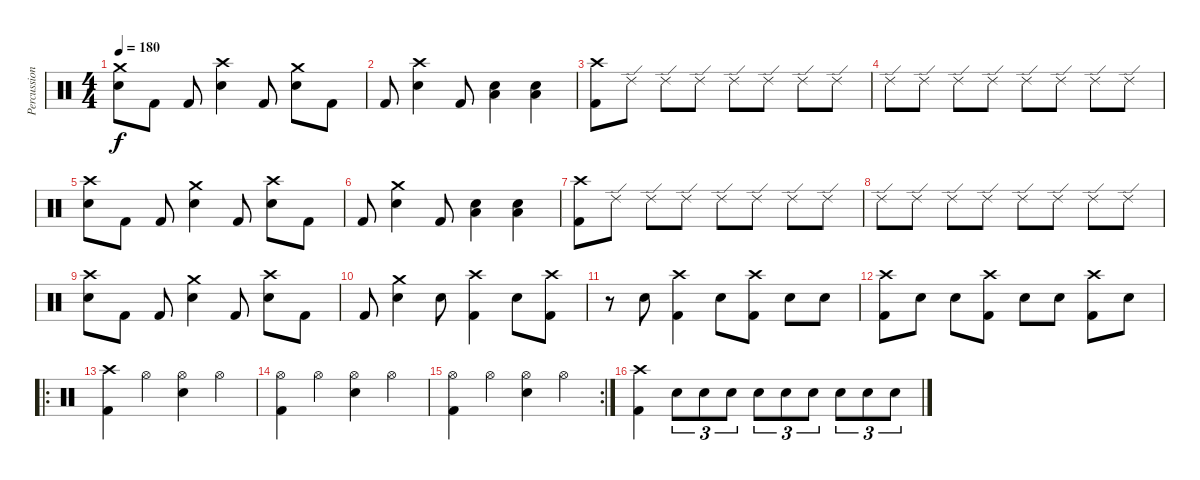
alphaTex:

\track ("Percussions" "Percussion") {instrument percussion}
\staff {score}
\articulation defaults
\ts (4 4)
\tempo 180
\clef neutral
\ks c
("Crash medium (hit)" "Snare (hit) 2").8{dy f} "Kick (hit) 2".8 "Kick (hit) 2".8 ("Crash high (hit)" "Snare (hit) 2").4 "Kick (hit) 2".8 ("Crash medium (hit)" "Snare (hit) 2").8 "Kick (hit) 2".8 |
"Kick (hit) 2".8 ("Crash high (hit)" "Snare (hit) 2").4 "Kick (hit) 2".8 ("Low Floor Tom (hit)" "Snare (hit) 2").4 ("Low Floor Tom (hit)" "Snare (hit) 2").4 |
("Crash high (hit)" "Kick (hit) 2").8 "Ride (edge) 2".8 "Ride (edge) 2".8 "Ride (edge) 2".8 "Ride (edge) 2".8 "Ride (edge) 2".8 "Ride (edge) 2".8 "Ride (edge) 2".8 |
"Ride (edge) 2".8 "Ride (edge) 2".8 "Ride (edge) 2".8 "Ride (edge) 2".8 "Ride (edge) 2".8 "Ride (edge) 2".8 "Ride (edge) 2".8 "Ride (edge) 2".8 |
("Crash high (hit)" "Snare (hit) 2").8 "Kick (hit) 2".8 "Kick (hit) 2".8 ("Crash medium (hit)" "Snare (hit) 2").4 "Kick (hit) 2".8 ("Crash high (hit)" "Snare (hit) 2").8 "Kick (hit) 2".8 |
"Kick (hit) 2".8 ("Crash medium (hit)" "Snare (hit) 2").4 "Kick (hit) 2".8 ("Low Floor Tom (hit)" "Snare (hit) 2").4 ("Low Floor Tom (hit)" "Snare (hit) 2").4 |
("Crash high (hit)" "Kick (hit) 2").8 "Ride (edge) 2".8 "Ride (edge) 2".8 "Ride (edge) 2".8 "Ride (edge) 2".8 "Ride (edge) 2".8 "Ride (edge) 2".8 "Ride (edge) 2".8 |
"Ride (edge) 2".8 "Ride (edge) 2".8 "Ride (edge) 2".8 "Ride (edge) 2".8 "Ride (edge) 2".8 "Ride (edge) 2".8 "Ride (edge) 2".8 "Ride (edge) 2".8 |
("Crash high (hit)" "Snare (hit) 2").8 "Kick (hit) 2".8 "Kick (hit) 2".8 ("Crash medium (hit)" "Snare (hit) 2").4 "Kick (hit) 2".8 ("Crash high (hit)" "Snare (hit) 2").8 "Kick (hit) 2".8 |
"Kick (hit) 2".8 ("Crash medium (hit)" "Snare (hit) 2").4 "Snare (hit) 2".8 ("Crash high (hit)" "Kick (hit) 2").4 "Snare (hit) 2".8 ("Crash high (hit)" "Kick (hit) 2").8 |
r.8 "Snare (hit) 2".8 ("Crash high (hit)" "Kick (hit) 2").4 "Snare (hit) 2".8 ("Crash high (hit)" "Kick (hit) 2").8 "Snare (hit) 2".8 "Snare (hit) 2".8 |
("Crash high (hit)" "Kick (hit) 2").8 "Snare (hit) 2".8 "Snare (hit) 2".8 ("Crash high (hit)" "Kick (hit) 2").8 "Snare (hit) 2".8 "Snare (hit) 2".8 ("Crash high (hit)" "Kick (hit) 2").8 "Snare (hit) 2".8 |
\ro
("Crash high (hit)" "Kick (hit) 2").4 "Hi-Hat (open)".4 ("Hi-Hat (open)" "Snare (hit) 2").4 "Hi-Hat (open)".4 |
("Hi-Hat (open)" "Kick (hit) 2").4 "Hi-Hat (open)".4 ("Hi-Hat (open)" "Snare (hit) 2").4 "Hi-Hat (open)".4 |
\rc 2
("Hi-Hat (open)" "Kick (hit) 2").4 "Hi-Hat (open)".4 ("Hi-Hat (open)" "Snare (hit) 2").4 "Hi-Hat (open)".4 |
("Crash high (hit)" "Kick (hit) 2").4 "Snare (hit) 2".8{tu (3 2)} "Snare (hit) 2".8{tu (3 2)} "Snare (hit) 2".8{tu (3 2)} "Snare (hit) 2".8{tu (3 2)} "Snare (hit) 2".8{tu (3 2)} "Snare (hit) 2".8{tu (3 2)} "Snare (hit) 2".8{tu (3 2)} "Snare (hit) 2".8{tu (3 2)} "Snare (hit) 2".8{tu (3 2)}
